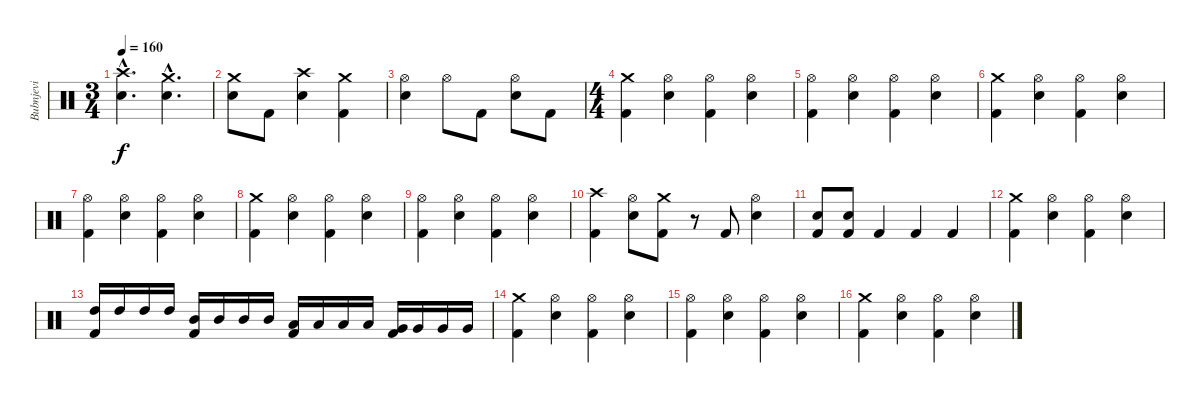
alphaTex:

\track ("Bubnjevi" "Bubnjevi") {instrument percussion}
\staff {score}
\articulation defaults
\ts (3 4)
\tempo 160
\clef neutral
\ks c
("Crash high (hit)"{hac} "Snare (hit) 2"{hac}).4{d dy f} ("Crash medium (hit)"{hac} "Snare (hit) 2"{hac}).4{d} |
("Crash medium (hit)" "Snare (hit) 2").8 "Kick (hit) 2".8 ("Crash high (hit)" "Snare (hit) 2").4 ("Crash medium (hit)" "Kick (hit) 2").4 |
("Hi-Hat (open)" "Snare (hit) 2").4 "Hi-Hat (open)".8 "Kick (hit) 2".8 ("Hi-Hat (open)" "Snare (hit) 2").8 "Kick (hit) 2".8 |
\ts (4 4)
("Crash medium (hit)" "Kick (hit) 2").4 ("Hi-Hat (open)" "Snare (hit) 2").4 ("Hi-Hat (open)" "Kick (hit) 2").4 ("Hi-Hat (open)" "Snare (hit) 2").4 |
("Hi-Hat (open)" "Kick (hit) 2").4 ("Hi-Hat (open)" "Snare (hit) 2").4 ("Hi-Hat (open)" "Kick (hit) 2").4 ("Hi-Hat (open)" "Snare (hit) 2").4 |
("Crash medium (hit)" "Kick (hit) 2").4 ("Hi-Hat (open)" "Snare (hit) 2").4 ("Hi-Hat (open)" "Kick (hit) 2").4 ("Hi-Hat (open)" "Snare (hit) 2").4 |
("Hi-Hat (open)" "Kick (hit) 2").4 ("Hi-Hat (open)" "Snare (hit) 2").4 ("Hi-Hat (open)" "Kick (hit) 2").4 ("Hi-Hat (open)" "Snare (hit) 2").4 |
("Crash medium (hit)" "Kick (hit) 2").4 ("Hi-Hat (open)" "Snare (hit) 2").4 ("Hi-Hat (open)" "Kick (hit) 2").4 ("Hi-Hat (open)" "Snare (hit) 2").4 |
("Hi-Hat (open)" "Kick (hit) 2").4 ("Hi-Hat (open)" "Snare (hit) 2").4 ("Hi-Hat (open)" "Kick (hit) 2").4 ("Hi-Hat (open)" "Snare (hit) 2").4 |
("Crash high (hit)" "Kick (hit) 2").4 ("Hi-Hat (open)" "Snare (hit) 2").8 ("Crash medium (hit)" "Kick (hit) 2").8 r.8 "Kick (hit) 2".8 ("Hi-Hat (open)" "Snare (hit) 2").4 |
("Snare (hit) 2" "Kick (hit) 2").8 ("Snare (hit) 2" "Kick (hit) 2").8 "Kick (hit) 2".4 "Kick (hit) 2".4 "Kick (hit) 2".4 |
("Crash medium (hit)" "Kick (hit) 2").4 ("Hi-Hat (open)" "Snare (hit) 2").4 ("Hi-Hat (open)" "Kick (hit) 2").4 ("Hi-Hat (open)" "Snare (hit) 2").4 |
("High Tom (hit)" "Kick (hit) 2").16 "High Tom (hit)".16 "High Tom (hit)".16 "High Tom (hit)".16 ("Mid Tom (hit)" "Kick (hit) 2").16 "Mid Tom (hit)".16 "Mid Tom (hit)".16 "Mid Tom (hit)".16 ("Low Tom (hit)" "Kick (hit) 2").16 "Low Tom (hit)".16 "Low Tom (hit)".16 "Low Tom (hit)".16 ("Very Low Tom (hit)" "Kick (hit) 2").16 "Very Low Tom (hit)".16 "Very Low Tom (hit)".16 "Very Low Tom (hit)".16 |
("Crash medium (hit)" "Kick (hit) 2").4 ("Hi-Hat (open)" "Snare (hit) 2").4 ("Hi-Hat (open)" "Kick (hit) 2").4 ("Hi-Hat (open)" "Snare (hit) 2").4 |
("Hi-Hat (open)" "Kick (hit) 2").4 ("Hi-Hat (open)" "Snare (hit) 2").4 ("Hi-Hat (open)" "Kick (hit) 2").4 ("Hi-Hat (open)" "Snare (hit) 2").4 |
("Crash medium (hit)" "Kick (hit) 2").4 ("Hi-Hat (open)" "Snare (hit) 2").4 ("Hi-Hat (open)" "Kick (hit) 2").4 ("Hi-Hat (open)" "Snare (hit) 2").4
